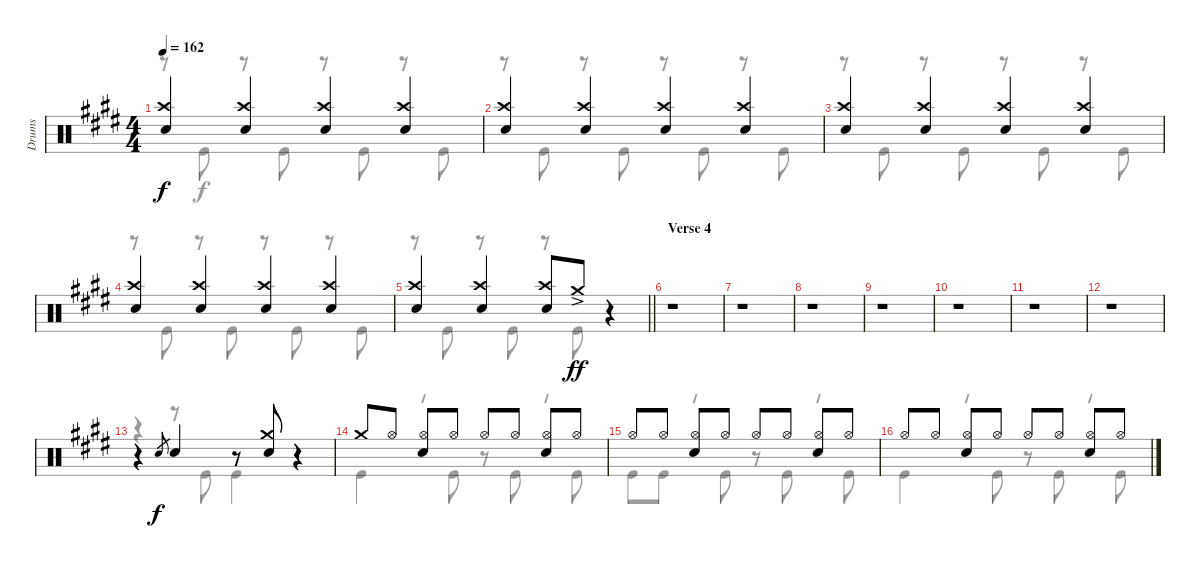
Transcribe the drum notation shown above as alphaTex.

\track ("Drums" "Drums") {instrument percussion}
\staff {score}
\articulation defaults
\voice
\ts (4 4)
\tempo 162
\clef neutral
\ks e
("Crash high (hit)" "Electric Snare (hit)").4{dy f} ("Crash high (hit)" "Electric Snare (hit)").4 ("Crash high (hit)" "Electric Snare (hit)").4 ("Crash high (hit)" "Electric Snare (hit)").4 |
("Crash high (hit)" "Electric Snare (hit)").4 ("Crash high (hit)" "Electric Snare (hit)").4 ("Crash high (hit)" "Electric Snare (hit)").4 ("Crash high (hit)" "Electric Snare (hit)").4 |
("Crash high (hit)" "Electric Snare (hit)").4 ("Crash high (hit)" "Electric Snare (hit)").4 ("Crash high (hit)" "Electric Snare (hit)").4 ("Crash high (hit)" "Electric Snare (hit)").4 |
("Crash high (hit)" "Electric Snare (hit)").4 ("Crash high (hit)" "Electric Snare (hit)").4 ("Crash high (hit)" "Electric Snare (hit)").4 ("Crash high (hit)" "Electric Snare (hit)").4 |
\barLineRight lightlight
("Crash high (hit)" "Electric Snare (hit)").4 ("Crash high (hit)" "Electric Snare (hit)").4 ("Crash high (hit)" "Electric Snare (hit)").8 "Crash medium (hit)"{ac}.8{dy ff} r.4 |
\section ("" "Verse 4")
r.1 |
r.1 |
r.1 |
r.1 |
r.1 |
r.1 |
r.1 |
r.4 "Electric Snare (hit)".8{gr dy f} "Electric Snare (hit)".4 r.8 ("Crash medium (hit)" "Electric Snare (hit)").8 r.4 |
"Crash medium (hit)".8 "Hi-Hat (open)".8 ("Hi-Hat (open)" "Electric Snare (hit)").8 "Hi-Hat (open)".8 "Hi-Hat (open)".8 "Hi-Hat (open)".8 ("Hi-Hat (open)" "Electric Snare (hit)").8 "Hi-Hat (open)".8 |
"Hi-Hat (open)".8 "Hi-Hat (open)".8 ("Hi-Hat (open)" "Electric Snare (hit)").8 "Hi-Hat (open)".8 "Hi-Hat (open)".8 "Hi-Hat (open)".8 ("Hi-Hat (open)" "Electric Snare (hit)").8 "Hi-Hat (open)".8 |
"Hi-Hat (open)".8 "Hi-Hat (open)".8 ("Hi-Hat (open)" "Electric Snare (hit)").8 "Hi-Hat (open)".8 "Hi-Hat (open)".8 "Hi-Hat (open)".8 ("Hi-Hat (open)" "Electric Snare (hit)").8 "Hi-Hat (open)".8
\voice
\clef neutral
\ottava regular
\simile none
\ks e
r.8{dy f} "Kick (hit)".8 r.8 "Kick (hit)".8 r.8 "Kick (hit)".8 r.8 "Kick (hit)".8 |
r.8 "Kick (hit)".8 r.8 "Kick (hit)".8 r.8 "Kick (hit)".8 r.8 "Kick (hit)".8 |
r.8 "Kick (hit)".8 r.8 "Kick (hit)".8 r.8 "Kick (hit)".8 r.8 "Kick (hit)".8 |
r.8 "Kick (hit)".8 r.8 "Kick (hit)".8 r.8 "Kick (hit)".8 r.8 "Kick (hit)".8 |
\barLineRight lightlight
r.8 "Kick (hit)".8 r.8 "Kick (hit)".8 r.8 "Kick (hit)".8 r.4 |
r.1 |
r.1 |
r.1 |
r.1 |
r.1 |
r.1 |
r.1 |
r.4 r.8 "Kick (hit)".8 "Kick (hit)".4 r.4 |
"Kick (hit)".4 r.8 "Kick (hit)".8 r.8 "Kick (hit)".8 r.8 "Kick (hit)".8 |
"Kick (hit)".8 "Kick (hit)".8 r.8 "Kick (hit)".8 r.8 "Kick (hit)".8 r.8 "Kick (hit)".8 |
"Kick (hit)".4 r.8 "Kick (hit)".8 r.8 "Kick (hit)".8 r.8 "Kick (hit)".8
